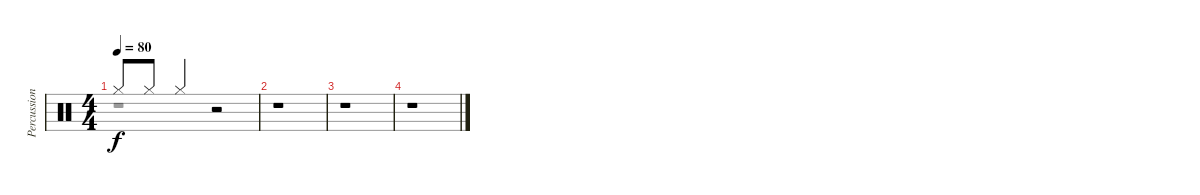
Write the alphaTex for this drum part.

\track ("Percussion" "Percussion") {instrument percussion}
\staff {score}
\articulation defaults
\voice
\ts (4 4)
\tempo 80
\clef neutral
\ks c "Hi-Hat (closed)".8{dy f} "Hi-Hat (closed)".8 "Hi-Hat (closed)".4
r.2 |
r.1 |
r.1 |
r.1
\voice
\clef neutral
\ottava regular
\simile none
\ks c
r.1{dy fff} |
r.1 |
r.1 |
r.1
